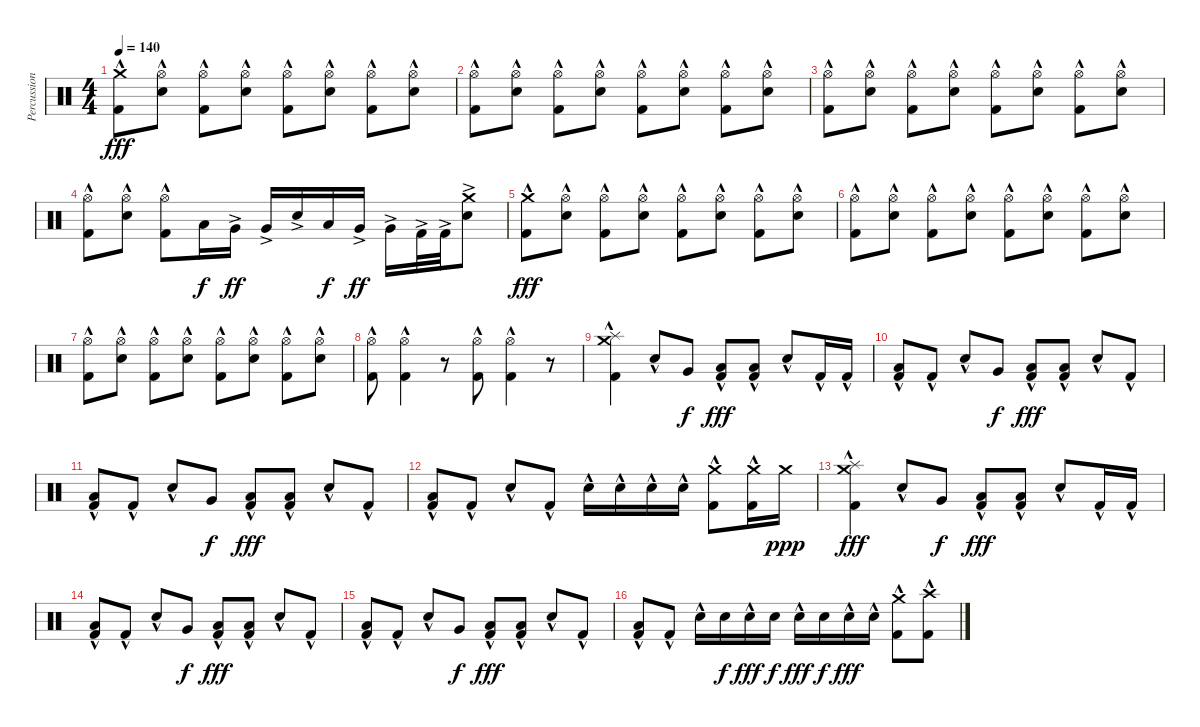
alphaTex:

\track ("Percussion" "Percussion") {instrument percussion}
\staff {score}
\articulation defaults
\ts (4 4)
\tempo 140
\clef neutral
\ks c
("Crash medium (hit)" "Kick (hit) 2"{hac}).8{dy fff} ("Hi-Hat (open)" "Electric Snare (hit)"{hac}).8 ("Hi-Hat (open)" "Kick (hit) 2"{hac}).8 ("Hi-Hat (open)" "Electric Snare (hit)"{hac}).8 ("Hi-Hat (open)" "Kick (hit) 2"{hac}).8 ("Hi-Hat (open)" "Electric Snare (hit)"{hac}).8 ("Hi-Hat (open)" "Kick (hit) 2"{hac}).8 ("Hi-Hat (open)" "Electric Snare (hit)"{hac}).8 |
("Hi-Hat (open)" "Kick (hit) 2"{hac}).8 ("Hi-Hat (open)" "Electric Snare (hit)"{hac}).8 ("Hi-Hat (open)" "Kick (hit) 2"{hac}).8 ("Hi-Hat (open)" "Electric Snare (hit)"{hac}).8 ("Hi-Hat (open)" "Kick (hit) 2"{hac}).8 ("Hi-Hat (open)" "Electric Snare (hit)"{hac}).8 ("Hi-Hat (open)" "Kick (hit) 2"{hac}).8 ("Hi-Hat (open)" "Electric Snare (hit)"{hac}).8 |
("Hi-Hat (open)" "Kick (hit) 2"{hac}).8 ("Hi-Hat (open)" "Electric Snare (hit)"{hac}).8 ("Hi-Hat (open)" "Kick (hit) 2"{hac}).8 ("Hi-Hat (open)" "Electric Snare (hit)"{hac}).8 ("Hi-Hat (open)" "Kick (hit) 2"{hac}).8 ("Hi-Hat (open)" "Electric Snare (hit)"{hac}).8 ("Hi-Hat (open)" "Kick (hit) 2"{hac}).8 ("Hi-Hat (open)" "Electric Snare (hit)"{hac}).8 |
("Hi-Hat (open)" "Kick (hit) 2"{hac}).8 ("Hi-Hat (open)" "Electric Snare (hit)"{hac}).8 ("Hi-Hat (open)" "Kick (hit) 2"{hac}).8 "Low Tom (hit)".16{dy f} "Very Low Tom (hit)"{ac}.16{dy ff} "Very Low Tom (hit)"{ac}.16 "Electric Snare (hit)"{ac}.16 "Low Tom (hit)".16{dy f} "Very Low Tom (hit)"{ac}.16{dy ff} "Very Low Tom (hit)"{ac}.16 "Kick (hit) 2"{ac}.32 "Kick (hit) 2"{ac}.32 ("Crash medium (hit)" "Electric Snare (hit)"{ac}).8 |
("Crash medium (hit)" "Kick (hit) 2"{hac}).8{dy fff} ("Hi-Hat (open)" "Electric Snare (hit)"{hac}).8 ("Hi-Hat (open)" "Kick (hit) 2"{hac}).8 ("Hi-Hat (open)" "Electric Snare (hit)"{hac}).8 ("Hi-Hat (open)" "Kick (hit) 2"{hac}).8 ("Hi-Hat (open)" "Electric Snare (hit)"{hac}).8 ("Hi-Hat (open)" "Kick (hit) 2"{hac}).8 ("Hi-Hat (open)" "Electric Snare (hit)"{hac}).8 |
("Hi-Hat (open)" "Kick (hit) 2"{hac}).8 ("Hi-Hat (open)" "Electric Snare (hit)"{hac}).8 ("Hi-Hat (open)" "Kick (hit) 2"{hac}).8 ("Hi-Hat (open)" "Electric Snare (hit)"{hac}).8 ("Hi-Hat (open)" "Kick (hit) 2"{hac}).8 ("Hi-Hat (open)" "Electric Snare (hit)"{hac}).8 ("Hi-Hat (open)" "Kick (hit) 2"{hac}).8 ("Hi-Hat (open)" "Electric Snare (hit)"{hac}).8 |
("Hi-Hat (open)" "Kick (hit) 2"{hac}).8 ("Hi-Hat (open)" "Electric Snare (hit)"{hac}).8 ("Hi-Hat (open)" "Kick (hit) 2"{hac}).8 ("Hi-Hat (open)" "Electric Snare (hit)"{hac}).8 ("Hi-Hat (open)" "Kick (hit) 2"{hac}).8 ("Hi-Hat (open)" "Electric Snare (hit)"{hac}).8 ("Hi-Hat (open)" "Kick (hit) 2"{hac}).8 ("Hi-Hat (open)" "Electric Snare (hit)"{hac}).8 |
("Hi-Hat (open)" "Kick (hit) 2"{hac}).8 ("Hi-Hat (open)" "Kick (hit) 2"{hac}).4 r.8 ("Hi-Hat (open)" "Kick (hit) 2"{hac}).8 ("Hi-Hat (open)" "Kick (hit) 2"{hac}).4 r.8 |
("Crash medium (hit)" "Splash (hit)" "Kick (hit) 2"{hac}).4 "Electric Snare (hit)"{hac}.8 "Very Low Tom (hit)".8{dy f} ("Low Tom (hit)" "Kick (hit) 2"{hac}).8{dy fff} ("Low Tom (hit)" "Kick (hit) 2"{hac}).8 "Electric Snare (hit)"{hac}.8 "Kick (hit) 2"{hac}.16 "Kick (hit) 2"{hac}.16 |
("Low Tom (hit)" "Kick (hit) 2"{hac}).8 "Kick (hit) 2"{hac}.8 "Electric Snare (hit)"{hac}.8 "Very Low Tom (hit)".8{dy f} ("Low Tom (hit)" "Kick (hit) 2"{hac}).8{dy fff} ("Low Tom (hit)" "Kick (hit) 2"{hac}).8 "Electric Snare (hit)"{hac}.8 "Kick (hit) 2"{hac}.8 |
("Low Tom (hit)" "Kick (hit) 2"{hac}).8 "Kick (hit) 2"{hac}.8 "Electric Snare (hit)"{hac}.8 "Very Low Tom (hit)".8{dy f} ("Low Tom (hit)" "Kick (hit) 2"{hac}).8{dy fff} ("Low Tom (hit)" "Kick (hit) 2"{hac}).8 "Electric Snare (hit)"{hac}.8 "Kick (hit) 2"{hac}.8 |
("Low Tom (hit)" "Kick (hit) 2"{hac}).8 "Kick (hit) 2"{hac}.8 "Electric Snare (hit)"{hac}.8 "Kick (hit) 2"{hac}.8 "Electric Snare (hit)"{hac}.16 "Electric Snare (hit)"{hac}.16 "Electric Snare (hit)"{hac}.16 "Electric Snare (hit)"{hac}.16 ("Crash medium (hit)" "Kick (hit) 2"{hac}).8 ("Crash medium (hit)" "Kick (hit) 2"{hac}).16 "Crash medium (hit)".16{dy ppp} |
("Crash medium (hit)" "Splash (hit)" "Kick (hit) 2"{hac}).4{dy fff} "Electric Snare (hit)"{hac}.8 "Very Low Tom (hit)".8{dy f} ("Low Tom (hit)" "Kick (hit) 2"{hac}).8{dy fff} ("Low Tom (hit)" "Kick (hit) 2"{hac}).8 "Electric Snare (hit)"{hac}.8 "Kick (hit) 2"{hac}.16 "Kick (hit) 2"{hac}.16 |
("Low Tom (hit)" "Kick (hit) 2"{hac}).8 "Kick (hit) 2"{hac}.8 "Electric Snare (hit)"{hac}.8 "Very Low Tom (hit)".8{dy f} ("Low Tom (hit)" "Kick (hit) 2"{hac}).8{dy fff} ("Low Tom (hit)" "Kick (hit) 2"{hac}).8 "Electric Snare (hit)"{hac}.8 "Kick (hit) 2"{hac}.8 |
("Low Tom (hit)" "Kick (hit) 2"{hac}).8 "Kick (hit) 2"{hac}.8 "Electric Snare (hit)"{hac}.8 "Very Low Tom (hit)".8{dy f} ("Low Tom (hit)" "Kick (hit) 2"{hac}).8{dy fff} ("Low Tom (hit)" "Kick (hit) 2"{hac}).8 "Electric Snare (hit)"{hac}.8 "Kick (hit) 2"{hac}.8 |
("Low Tom (hit)" "Kick (hit) 2"{hac}).8 "Kick (hit) 2"{hac}.8 "Electric Snare (hit)"{hac}.16 "Electric Snare (hit)".16{dy f} "Electric Snare (hit)"{hac}.16{dy fff} "Electric Snare (hit)".16{dy f} "Electric Snare (hit)"{hac}.16{dy fff} "Electric Snare (hit)".16{dy f} "Electric Snare (hit)"{hac}.16{dy fff} "Electric Snare (hit)"{hac}.16 ("Crash medium (hit)" "Kick (hit) 2"{hac}).8 ("Crash high (hit)" "Kick (hit) 2"{hac}).8
